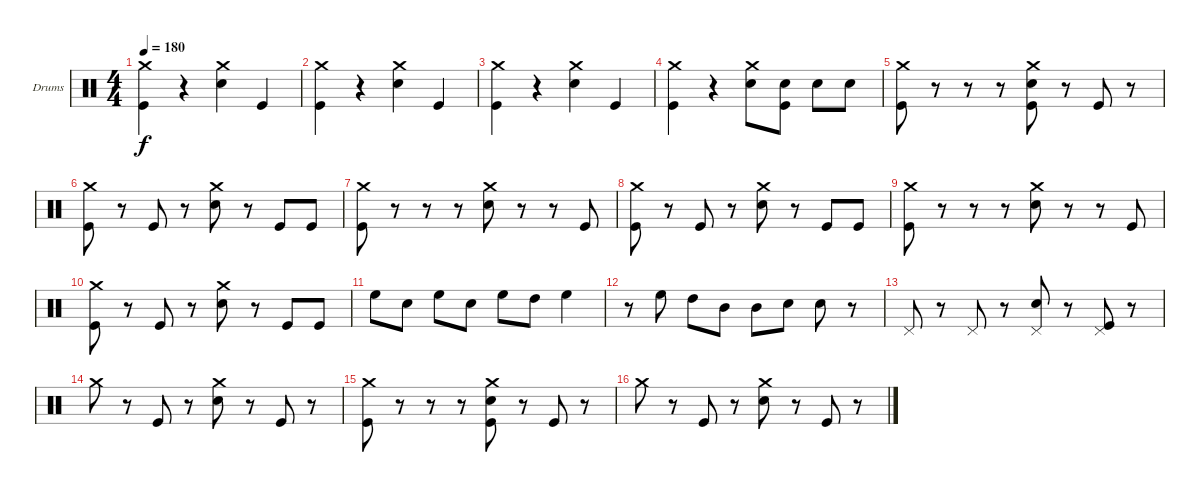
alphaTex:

\defaultSystemsLayout 4
\bracketExtendMode groupsimilarinstruments
\firstSystemTrackNameOrientation horizontal
\otherSystemsTrackNameOrientation horizontal
\track ("Drumkit" "Drums") {instrument percussion}
\staff {score}
\articulation defaults
\ts (4 4)
\tempo 180
\clef neutral
\ks c
("Crash medium (hit)" "Kick (hit)").4{dy f} r.4 ("Crash medium (hit)" "Snare (hit) 2").4 "Kick (hit)".4 |
("Crash medium (hit)" "Kick (hit)").4 r.4 ("Crash medium (hit)" "Snare (hit) 2").4 "Kick (hit)".4 |
("Crash medium (hit)" "Kick (hit)").4 r.4 ("Crash medium (hit)" "Snare (hit) 2").4 "Kick (hit)".4 |
("Crash medium (hit)" "Kick (hit)").4 r.4 ("Crash medium (hit)" "Snare (hit) 2").8 ("Snare (hit) 2" "Kick (hit)").8 "Snare (hit) 2".8 "Snare (hit) 2".8 |
("Crash medium (hit)" "Kick (hit)").8 r.8 r.8 r.8 ("Crash medium (hit)" "Snare (hit) 2" "Kick (hit)").8 r.8 "Kick (hit)".8 r.8 |
("Crash medium (hit)" "Kick (hit)").8 r.8 "Kick (hit)".8 r.8 ("Crash medium (hit)" "Snare (hit) 2").8 r.8 "Kick (hit)".8 "Kick (hit)".8 |
("Crash medium (hit)" "Kick (hit)").8 r.8 r.8 r.8 ("Crash medium (hit)" "Snare (hit) 2").8 r.8 r.8 "Kick (hit)".8 |
("Crash medium (hit)" "Kick (hit)").8 r.8 "Kick (hit)".8 r.8 ("Crash medium (hit)" "Snare (hit) 2").8 r.8 "Kick (hit)".8 "Kick (hit)".8 |
("Crash medium (hit)" "Kick (hit)").8 r.8 r.8 r.8 ("Crash medium (hit)" "Snare (hit) 2").8 r.8 r.8 "Kick (hit)".8 |
("Crash medium (hit)" "Kick (hit)").8 r.8 "Kick (hit)".8 r.8 ("Crash medium (hit)" "Snare (hit) 2").8 r.8 "Kick (hit)".8 "Kick (hit)".8 |
"High Floor Tom (hit)".8 "Snare (hit) 2".8 "High Floor Tom (hit)".8 "Snare (hit) 2".8 "High Floor Tom (hit)".8 "High Tom (hit)".8 "High Floor Tom (hit)".4 |
r.8 "High Floor Tom (hit)".8 "High Tom (hit)".8 "Mid Tom (hit)".8 "Mid Tom (hit)".8 "Snare (hit) 2".8 "Snare (hit) 2".8 r.8 |
"Pedal Hi-Hat (hit)".8 r.8 "Pedal Hi-Hat (hit)".8 r.8 ("Pedal Hi-Hat (hit)" "Snare (hit) 2").8 r.8 ("Pedal Hi-Hat (hit)" "Kick (hit)").8 r.8 |
"Crash medium (hit)".8 r.8 "Kick (hit)".8 r.8 ("Crash medium (hit)" "Snare (hit) 2").8 r.8 "Kick (hit)".8 r.8 |
("Crash medium (hit)" "Kick (hit)").8 r.8 r.8 r.8 ("Crash medium (hit)" "Snare (hit) 2" "Kick (hit)").8 r.8 "Kick (hit)".8 r.8 |
"Crash medium (hit)".8 r.8 "Kick (hit)".8 r.8 ("Crash medium (hit)" "Snare (hit) 2").8 r.8 "Kick (hit)".8 r.8
